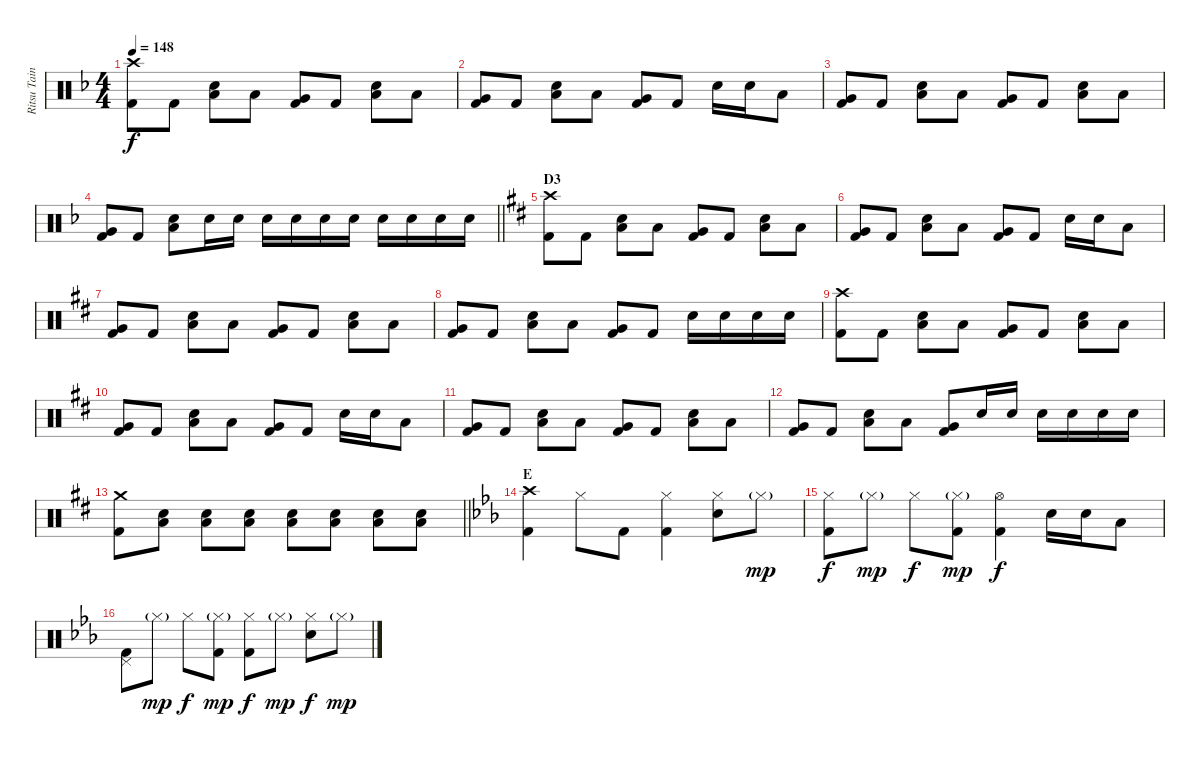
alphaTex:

\track ("Ritsu Tainaka" "Ritsu Tain") {instrument percussion}
\staff {score}
\articulation defaults
\ts (4 4)
\tempo 148
\clef neutral
\ks f
("Crash high (hit)" "Kick (hit) 2").8{dy f} "Kick (hit) 2".8 ("Snare (hit) 2" "Low Floor Tom (hit)").8 "Low Tom (hit)".8 ("Very Low Tom (hit)" "Kick (hit) 2").8 "Kick (hit) 2".8 ("Snare (hit) 2" "Low Floor Tom (hit)").8 "Low Tom (hit)".8 |
("Very Low Tom (hit)" "Kick (hit) 2").8 "Kick (hit) 2".8 ("Snare (hit) 2" "Low Floor Tom (hit)").8 "Low Tom (hit)".8 ("Very Low Tom (hit)" "Kick (hit) 2").8 "Kick (hit) 2".8 "Snare (hit) 2".16 "Snare (hit) 2".16 "Low Tom (hit)".8 |
("Very Low Tom (hit)" "Kick (hit) 2").8 "Kick (hit) 2".8 ("Snare (hit) 2" "Low Floor Tom (hit)").8 "Low Tom (hit)".8 ("Very Low Tom (hit)" "Kick (hit) 2").8 "Kick (hit) 2".8 ("Snare (hit) 2" "Low Floor Tom (hit)").8 "Low Tom (hit)".8 |
\barLineRight lightlight
("Very Low Tom (hit)" "Kick (hit) 2").8 "Kick (hit) 2".8 ("Snare (hit) 2" "Low Floor Tom (hit)").8 "Snare (hit) 2".16 "Snare (hit) 2".16 "Snare (hit) 2".16 "Snare (hit) 2".16 "Snare (hit) 2".16 "Snare (hit) 2".16 "Snare (hit) 2".16 "Snare (hit) 2".16 "Snare (hit) 2".16 "Snare (hit) 2".16 |
\section ("" "D3")
\ks d
("Crash high (hit)" "Kick (hit) 2").8 "Kick (hit) 2".8 ("Snare (hit) 2" "Low Floor Tom (hit)").8 "Low Tom (hit)".8 ("Very Low Tom (hit)" "Kick (hit) 2").8 "Kick (hit) 2".8 ("Snare (hit) 2" "Low Floor Tom (hit)").8 "Low Tom (hit)".8 |
("Very Low Tom (hit)" "Kick (hit) 2").8 "Kick (hit) 2".8 ("Snare (hit) 2" "Low Floor Tom (hit)").8 "Low Tom (hit)".8 ("Very Low Tom (hit)" "Kick (hit) 2").8 "Kick (hit) 2".8 "Snare (hit) 2".16 "Snare (hit) 2".16 "Low Tom (hit)".8 |
("Very Low Tom (hit)" "Kick (hit) 2").8 "Kick (hit) 2".8 ("Snare (hit) 2" "Low Floor Tom (hit)").8 "Low Tom (hit)".8 ("Very Low Tom (hit)" "Kick (hit) 2").8 "Kick (hit) 2".8 ("Snare (hit) 2" "Low Floor Tom (hit)").8 "Low Tom (hit)".8 |
("Very Low Tom (hit)" "Kick (hit) 2").8 "Kick (hit) 2".8 ("Snare (hit) 2" "Low Floor Tom (hit)").8 "Low Tom (hit)".8 ("Very Low Tom (hit)" "Kick (hit) 2").8 "Kick (hit) 2".8 "Snare (hit) 2".16 "Snare (hit) 2".16 "Snare (hit) 2".16 "Snare (hit) 2".16 |
("Crash high (hit)" "Kick (hit) 2").8 "Kick (hit) 2".8 ("Snare (hit) 2" "Low Floor Tom (hit)").8 "Low Tom (hit)".8 ("Very Low Tom (hit)" "Kick (hit) 2").8 "Kick (hit) 2".8 ("Snare (hit) 2" "Low Floor Tom (hit)").8 "Low Tom (hit)".8 |
("Very Low Tom (hit)" "Kick (hit) 2").8 "Kick (hit) 2".8 ("Snare (hit) 2" "Low Floor Tom (hit)").8 "Low Tom (hit)".8 ("Very Low Tom (hit)" "Kick (hit) 2").8 "Kick (hit) 2".8 "Snare (hit) 2".16 "Snare (hit) 2".16 "Low Tom (hit)".8 |
("Very Low Tom (hit)" "Kick (hit) 2").8 "Kick (hit) 2".8 ("Snare (hit) 2" "Low Floor Tom (hit)").8 "Low Tom (hit)".8 ("Very Low Tom (hit)" "Kick (hit) 2").8 "Kick (hit) 2".8 ("Snare (hit) 2" "Low Floor Tom (hit)").8 "Low Tom (hit)".8 |
("Very Low Tom (hit)" "Kick (hit) 2").8 "Kick (hit) 2".8 ("Snare (hit) 2" "Low Floor Tom (hit)").8 "Low Tom (hit)".8 ("Very Low Tom (hit)" "Kick (hit) 2").8 "Snare (hit) 2".16 "Snare (hit) 2".16 "Snare (hit) 2".16 "Snare (hit) 2".16 "Snare (hit) 2".16 "Snare (hit) 2".16 |
\barLineRight lightlight
("Crash medium (hit)" "Kick (hit) 2").8 ("Snare (hit) 2" "Low Floor Tom (hit)").8 ("Snare (hit) 2" "Low Floor Tom (hit)").8 ("Snare (hit) 2" "Low Floor Tom (hit)").8 ("Snare (hit) 2" "Low Floor Tom (hit)").8 ("Snare (hit) 2" "Low Floor Tom (hit)").8 ("Snare (hit) 2" "Low Floor Tom (hit)").8 ("Snare (hit) 2" "Low Floor Tom (hit)").8 |
\section ("" "E")
\ks eb
("Crash high (hit)" "Kick (hit) 2").4 "Hi-Hat (closed)".8 "Kick (hit) 2".8 ("Hi-Hat (closed)" "Kick (hit) 2").4 ("Hi-Hat (closed)" "Snare (hit) 2").8 "Hi-Hat (closed)"{g}.8{dy mp} |
("Hi-Hat (closed)" "Kick (hit) 2").8{dy f} "Hi-Hat (closed)"{g}.8{dy mp} "Hi-Hat (closed)".8{dy f} ("Hi-Hat (closed)"{g} "Kick (hit) 2").8{dy mp} ("Hi-Hat (open)" "Kick (hit) 2").4{dy f} "Snare (hit) 2".16 "Snare (hit) 2".16 "Low Tom (hit)".8 |
("Pedal Hi-Hat (hit)" "Kick (hit) 2").8 "Hi-Hat (closed)"{g}.8{dy mp} "Hi-Hat (closed)".8{dy f} ("Hi-Hat (closed)"{g} "Kick (hit) 2").8{dy mp} ("Hi-Hat (closed)" "Kick (hit) 2").8{dy f} "Hi-Hat (closed)"{g}.8{dy mp} ("Hi-Hat (closed)" "Snare (hit) 2").8{dy f} "Hi-Hat (closed)"{g}.8{dy mp}
